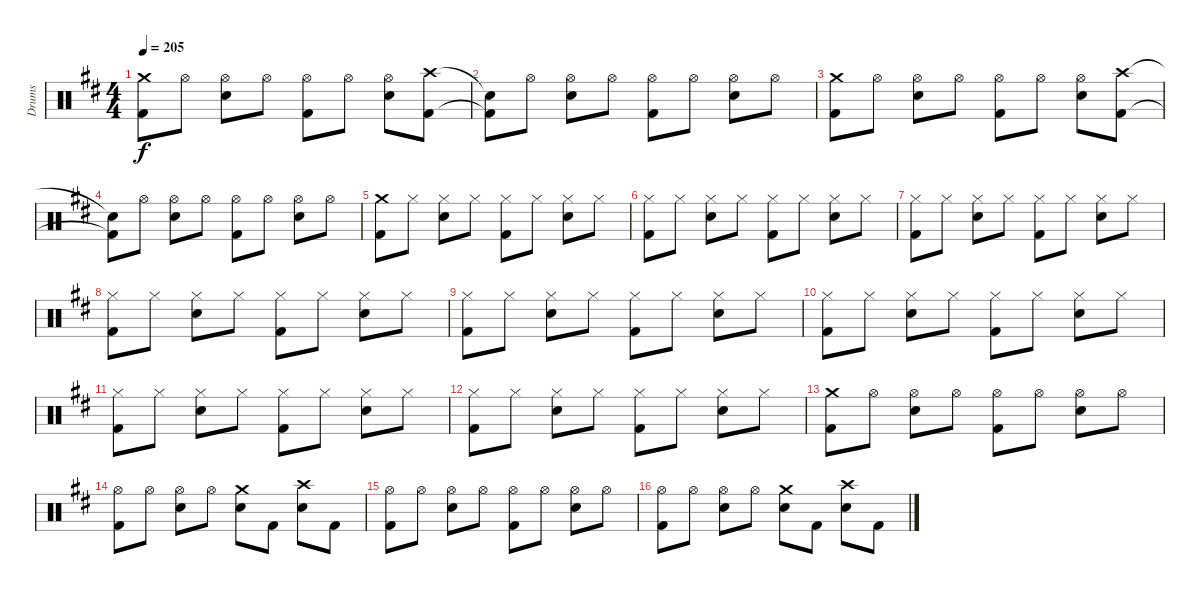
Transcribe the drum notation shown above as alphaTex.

\track ("Drums" "Drums") {instrument percussion}
\staff {score}
\articulation defaults
\ts (4 4)
\tempo 205
\clef neutral
\ks d
("Crash medium (hit)" "Kick (hit) 2").8{dy f} "Hi-Hat (open)".8 ("Hi-Hat (open)" "Snare (hit) 2").8 "Hi-Hat (open)".8 ("Hi-Hat (open)" "Kick (hit) 2").8 "Hi-Hat (open)".8 ("Hi-Hat (open)" "Snare (hit) 2").8 ("Crash high (hit)" "Kick (hit) 2").8 |
("Snare (hit)"{t} "Kick (hit) 2"{t}).8 "Hi-Hat (open)".8 ("Hi-Hat (open)" "Snare (hit) 2").8 "Hi-Hat (open)".8 ("Hi-Hat (open)" "Kick (hit) 2").8 "Hi-Hat (open)".8 ("Hi-Hat (open)" "Snare (hit) 2").8 "Hi-Hat (open)".8 |
("Crash medium (hit)" "Kick (hit) 2").8 "Hi-Hat (open)".8 ("Hi-Hat (open)" "Snare (hit) 2").8 "Hi-Hat (open)".8 ("Hi-Hat (open)" "Kick (hit) 2").8 "Hi-Hat (open)".8 ("Hi-Hat (open)" "Snare (hit) 2").8 ("Crash high (hit)" "Kick (hit) 2").8 |
("Snare (hit)"{t} "Kick (hit) 2"{t}).8 "Hi-Hat (open)".8 ("Hi-Hat (open)" "Snare (hit) 2").8 "Hi-Hat (open)".8 ("Hi-Hat (open)" "Kick (hit) 2").8 "Hi-Hat (open)".8 ("Hi-Hat (open)" "Snare (hit) 2").8 "Hi-Hat (open)".8 |
("Crash medium (hit)" "Kick (hit) 2").8 "Hi-Hat (closed)".8 ("Hi-Hat (closed)" "Snare (hit) 2").8 "Hi-Hat (closed)".8 ("Hi-Hat (closed)" "Kick (hit) 2").8 "Hi-Hat (closed)".8 ("Hi-Hat (closed)" "Snare (hit) 2").8 "Hi-Hat (closed)".8 |
("Hi-Hat (closed)" "Kick (hit) 2").8 "Hi-Hat (closed)".8 ("Hi-Hat (closed)" "Snare (hit) 2").8 "Hi-Hat (closed)".8 ("Hi-Hat (closed)" "Kick (hit) 2").8 "Hi-Hat (closed)".8 ("Hi-Hat (closed)" "Snare (hit) 2").8 "Hi-Hat (closed)".8 |
("Hi-Hat (closed)" "Kick (hit) 2").8 "Hi-Hat (closed)".8 ("Hi-Hat (closed)" "Snare (hit) 2").8 "Hi-Hat (closed)".8 ("Hi-Hat (closed)" "Kick (hit) 2").8 "Hi-Hat (closed)".8 ("Hi-Hat (closed)" "Snare (hit) 2").8 "Hi-Hat (closed)".8 |
("Hi-Hat (closed)" "Kick (hit) 2").8 "Hi-Hat (closed)".8 ("Hi-Hat (closed)" "Snare (hit) 2").8 "Hi-Hat (closed)".8 ("Hi-Hat (closed)" "Kick (hit) 2").8 "Hi-Hat (closed)".8 ("Hi-Hat (closed)" "Snare (hit) 2").8 "Hi-Hat (closed)".8 |
("Hi-Hat (closed)" "Kick (hit) 2").8 "Hi-Hat (closed)".8 ("Hi-Hat (closed)" "Snare (hit) 2").8 "Hi-Hat (closed)".8 ("Hi-Hat (closed)" "Kick (hit) 2").8 "Hi-Hat (closed)".8 ("Hi-Hat (closed)" "Snare (hit) 2").8 "Hi-Hat (closed)".8 |
("Hi-Hat (closed)" "Kick (hit) 2").8 "Hi-Hat (closed)".8 ("Hi-Hat (closed)" "Snare (hit) 2").8 "Hi-Hat (closed)".8 ("Hi-Hat (closed)" "Kick (hit) 2").8 "Hi-Hat (closed)".8 ("Hi-Hat (closed)" "Snare (hit) 2").8 "Hi-Hat (closed)".8 |
("Hi-Hat (closed)" "Kick (hit) 2").8 "Hi-Hat (closed)".8 ("Hi-Hat (closed)" "Snare (hit) 2").8 "Hi-Hat (closed)".8 ("Hi-Hat (closed)" "Kick (hit) 2").8 "Hi-Hat (closed)".8 ("Hi-Hat (closed)" "Snare (hit) 2").8 "Hi-Hat (closed)".8 |
("Hi-Hat (closed)" "Kick (hit) 2").8 "Hi-Hat (closed)".8 ("Hi-Hat (closed)" "Snare (hit) 2").8 "Hi-Hat (closed)".8 ("Hi-Hat (closed)" "Kick (hit) 2").8 "Hi-Hat (closed)".8 ("Hi-Hat (closed)" "Snare (hit) 2").8 "Hi-Hat (closed)".8 |
("Crash medium (hit)" "Kick (hit) 2").8 "Hi-Hat (open)".8 ("Hi-Hat (open)" "Snare (hit) 2").8 "Hi-Hat (open)".8 ("Hi-Hat (open)" "Kick (hit) 2").8 "Hi-Hat (open)".8 ("Hi-Hat (open)" "Snare (hit) 2").8 "Hi-Hat (open)".8 |
("Hi-Hat (open)" "Kick (hit) 2").8 "Hi-Hat (open)".8 ("Hi-Hat (open)" "Snare (hit) 2").8 "Hi-Hat (open)".8 ("Crash medium (hit)" "Snare (hit) 2").8 "Kick (hit) 2".8 ("Crash high (hit)" "Snare (hit) 2").8 "Kick (hit) 2".8 |
("Hi-Hat (open)" "Kick (hit) 2").8 "Hi-Hat (open)".8 ("Hi-Hat (open)" "Snare (hit) 2").8 "Hi-Hat (open)".8 ("Hi-Hat (open)" "Kick (hit) 2").8 "Hi-Hat (open)".8 ("Hi-Hat (open)" "Snare (hit) 2").8 "Hi-Hat (open)".8 |
("Hi-Hat (open)" "Kick (hit) 2").8 "Hi-Hat (open)".8 ("Hi-Hat (open)" "Snare (hit) 2").8 "Hi-Hat (open)".8 ("Crash medium (hit)" "Snare (hit) 2").8 "Kick (hit) 2".8 ("Crash high (hit)" "Snare (hit) 2").8 "Kick (hit) 2".8
